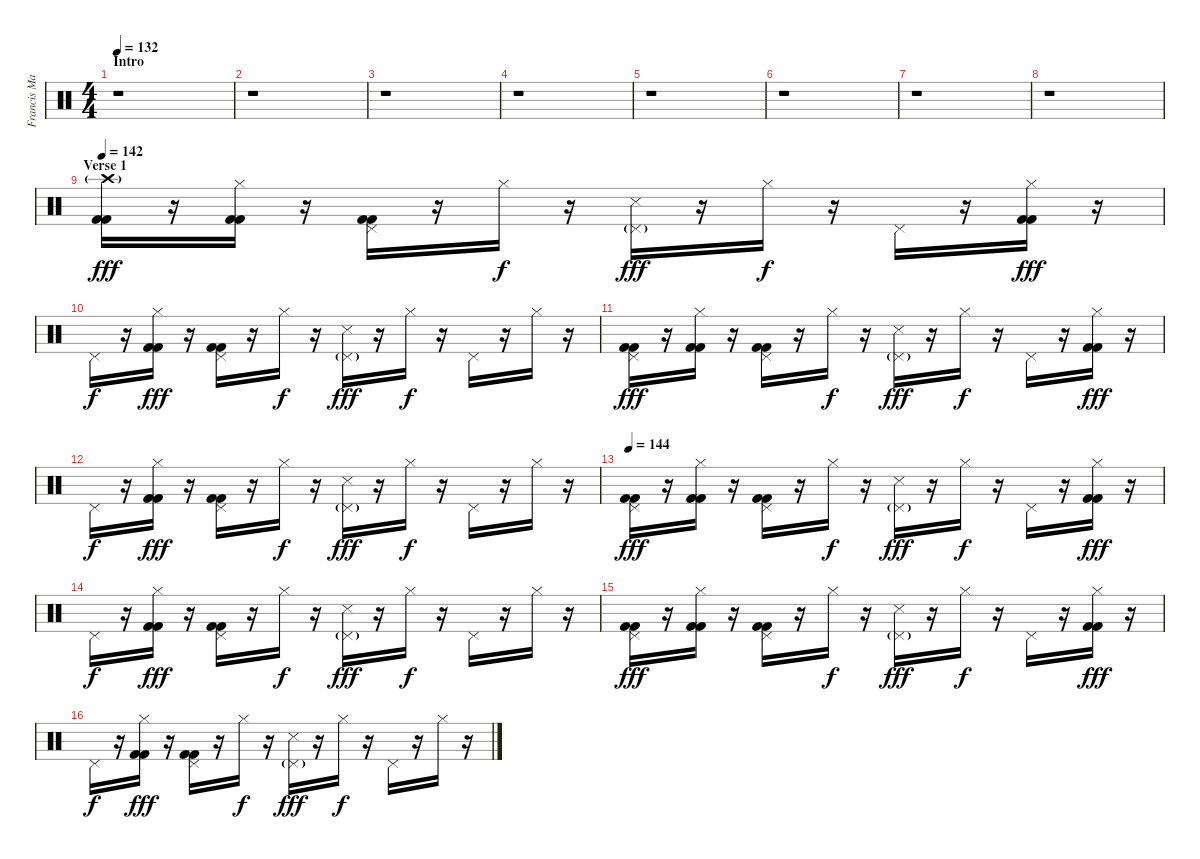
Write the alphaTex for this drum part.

\track ("Francis Mark" "Francis Ma") {instrument percussion}
\staff {score}
\articulation defaults
\ts (4 4)
\section ("" "Intro")
\tempo 132
\clef neutral
\ks c
r.1{dy fff} |
r.1 |
r.1 |
r.1 |
r.1 |
r.1 |
r.1 |
r.1 |
\section ("" "Verse 1")
\tempo 142
("Crash high (hit)"{g} "Kick (hit) 2" "Kick (hit) 2").16 r.16 ("Hi-Hat (closed)" "Kick (hit) 2" "Kick (hit) 2").16 r.16 ("Pedal Hi-Hat (hit)" "Kick (hit) 2" "Kick (hit) 2").16 r.16 "Hi-Hat (closed)".16{dy f} r.16 ("Pedal Hi-Hat (hit)"{g} "Snare (side stick) 3").16{dy fff} r.16 "Hi-Hat (closed)".16{dy f} r.16 "Pedal Hi-Hat (hit)".16 r.16 ("Hi-Hat (closed)" "Kick (hit) 2" "Kick (hit) 2").16{dy fff} r.16 |
"Pedal Hi-Hat (hit)".16{dy f} r.16 ("Hi-Hat (closed)" "Kick (hit) 2" "Kick (hit) 2").16{dy fff} r.16 ("Pedal Hi-Hat (hit)" "Kick (hit) 2" "Kick (hit) 2").16 r.16 "Hi-Hat (closed)".16{dy f} r.16 ("Pedal Hi-Hat (hit)"{g} "Snare (side stick) 3").16{dy fff} r.16 "Hi-Hat (closed)".16{dy f} r.16 "Pedal Hi-Hat (hit)".16 r.16 "Hi-Hat (closed)".16 r.16 |
("Pedal Hi-Hat (hit)" "Kick (hit) 2" "Kick (hit) 2").16{dy fff} r.16 ("Hi-Hat (closed)" "Kick (hit) 2" "Kick (hit) 2").16 r.16 ("Pedal Hi-Hat (hit)" "Kick (hit) 2" "Kick (hit) 2").16 r.16 "Hi-Hat (closed)".16{dy f} r.16 ("Pedal Hi-Hat (hit)"{g} "Snare (side stick) 3").16{dy fff} r.16 "Hi-Hat (closed)".16{dy f} r.16 "Pedal Hi-Hat (hit)".16 r.16 ("Hi-Hat (closed)" "Kick (hit) 2" "Kick (hit) 2").16{dy fff} r.16 |
"Pedal Hi-Hat (hit)".16{dy f} r.16 ("Hi-Hat (closed)" "Kick (hit) 2" "Kick (hit) 2").16{dy fff} r.16 ("Pedal Hi-Hat (hit)" "Kick (hit) 2" "Kick (hit) 2").16 r.16 "Hi-Hat (closed)".16{dy f} r.16 ("Pedal Hi-Hat (hit)"{g} "Snare (side stick) 3").16{dy fff} r.16 "Hi-Hat (closed)".16{dy f} r.16 "Pedal Hi-Hat (hit)".16 r.16 "Hi-Hat (closed)".16 r.16 |
\tempo 144
("Pedal Hi-Hat (hit)" "Kick (hit) 2" "Kick (hit) 2").16{dy fff} r.16 ("Hi-Hat (closed)" "Kick (hit) 2" "Kick (hit) 2").16 r.16 ("Pedal Hi-Hat (hit)" "Kick (hit) 2" "Kick (hit) 2").16 r.16 "Hi-Hat (closed)".16{dy f} r.16 ("Pedal Hi-Hat (hit)"{g} "Snare (side stick) 3").16{dy fff} r.16 "Hi-Hat (closed)".16{dy f} r.16 "Pedal Hi-Hat (hit)".16 r.16 ("Hi-Hat (closed)" "Kick (hit) 2" "Kick (hit) 2").16{dy fff} r.16 |
"Pedal Hi-Hat (hit)".16{dy f} r.16 ("Hi-Hat (closed)" "Kick (hit) 2" "Kick (hit) 2").16{dy fff} r.16 ("Pedal Hi-Hat (hit)" "Kick (hit) 2" "Kick (hit) 2").16 r.16 "Hi-Hat (closed)".16{dy f} r.16 ("Pedal Hi-Hat (hit)"{g} "Snare (side stick) 3").16{dy fff} r.16 "Hi-Hat (closed)".16{dy f} r.16 "Pedal Hi-Hat (hit)".16 r.16 "Hi-Hat (closed)".16 r.16 |
("Pedal Hi-Hat (hit)" "Kick (hit) 2" "Kick (hit) 2").16{dy fff} r.16 ("Hi-Hat (closed)" "Kick (hit) 2" "Kick (hit) 2").16 r.16 ("Pedal Hi-Hat (hit)" "Kick (hit) 2" "Kick (hit) 2").16 r.16 "Hi-Hat (closed)".16{dy f} r.16 ("Pedal Hi-Hat (hit)"{g} "Snare (side stick) 3").16{dy fff} r.16 "Hi-Hat (closed)".16{dy f} r.16 "Pedal Hi-Hat (hit)".16 r.16 ("Hi-Hat (closed)" "Kick (hit) 2" "Kick (hit) 2").16{dy fff} r.16 |
"Pedal Hi-Hat (hit)".16{dy f} r.16 ("Hi-Hat (closed)" "Kick (hit) 2" "Kick (hit) 2").16{dy fff} r.16 ("Pedal Hi-Hat (hit)" "Kick (hit) 2" "Kick (hit) 2").16 r.16 "Hi-Hat (closed)".16{dy f} r.16 ("Pedal Hi-Hat (hit)"{g} "Snare (side stick) 3").16{dy fff} r.16 "Hi-Hat (closed)".16{dy f} r.16 "Pedal Hi-Hat (hit)".16 r.16 "Hi-Hat (closed)".16 r.16
